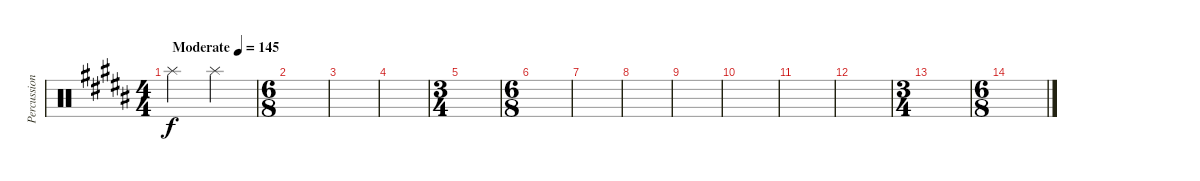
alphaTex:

\track ("Percussion" "Percussion") {instrument percussion}
\staff {score}
\articulation defaults
\ts (4 4)
\tempo (145 "Moderate")
\clef neutral
\ks g#minor "Splash (hit)".2{dy f} "Splash (hit)".2
|
\ts (6 8)
|
|
|
\ts (3 4)
|
\ts (6 8)
|
|
|
|
|
|
|
\ts (3 4)
|
\ts (6 8)
